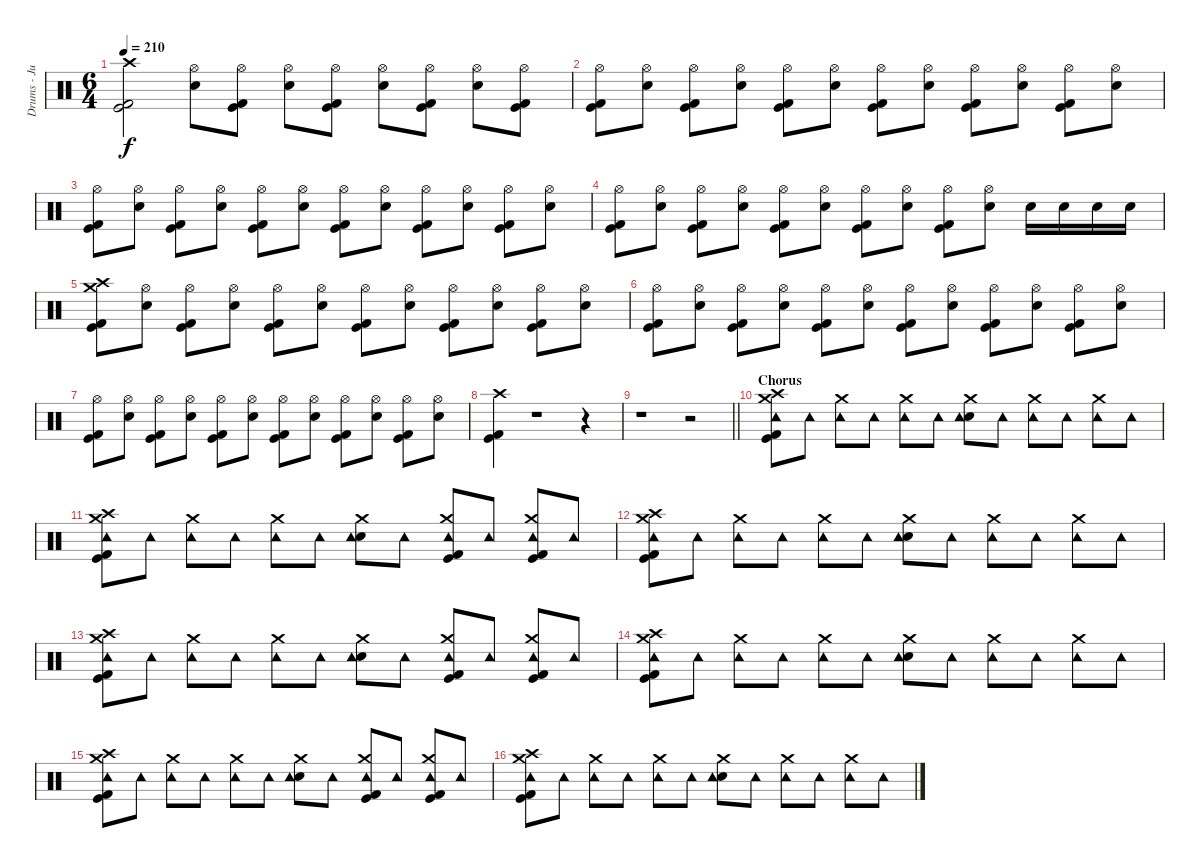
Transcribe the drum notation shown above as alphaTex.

\track ("Drums - Justin Foley" "Drums - Ju") {instrument percussion}
\staff {score}
\articulation defaults
\ts (6 4)
\tempo 210
\clef neutral
\ks c
("Crash high (hit)" "Kick (hit) 2" "Kick (hit)").2{dy f} ("Hi-Hat (open)" "Snare (hit) 2").8 ("Hi-Hat (open)" "Kick (hit) 2" "Kick (hit)").8 ("Hi-Hat (open)" "Snare (hit) 2").8 ("Hi-Hat (open)" "Kick (hit) 2" "Kick (hit)").8 ("Hi-Hat (open)" "Snare (hit) 2").8 ("Hi-Hat (open)" "Kick (hit) 2" "Kick (hit)").8 ("Hi-Hat (open)" "Snare (hit) 2").8 ("Hi-Hat (open)" "Kick (hit) 2" "Kick (hit)").8 |
("Hi-Hat (open)" "Kick (hit) 2" "Kick (hit)").8 ("Hi-Hat (open)" "Snare (hit) 2").8 ("Hi-Hat (open)" "Kick (hit) 2" "Kick (hit)").8 ("Hi-Hat (open)" "Snare (hit) 2").8 ("Hi-Hat (open)" "Kick (hit) 2" "Kick (hit)").8 ("Hi-Hat (open)" "Snare (hit) 2").8 ("Hi-Hat (open)" "Kick (hit) 2" "Kick (hit)").8 ("Hi-Hat (open)" "Snare (hit) 2").8 ("Hi-Hat (open)" "Kick (hit) 2" "Kick (hit)").8 ("Hi-Hat (open)" "Snare (hit) 2").8 ("Hi-Hat (open)" "Kick (hit) 2" "Kick (hit)").8 ("Hi-Hat (open)" "Snare (hit) 2").8 |
("Hi-Hat (open)" "Kick (hit) 2" "Kick (hit)").8 ("Hi-Hat (open)" "Snare (hit) 2").8 ("Hi-Hat (open)" "Kick (hit) 2" "Kick (hit)").8 ("Hi-Hat (open)" "Snare (hit) 2").8 ("Hi-Hat (open)" "Kick (hit) 2" "Kick (hit)").8 ("Hi-Hat (open)" "Snare (hit) 2").8 ("Hi-Hat (open)" "Kick (hit) 2" "Kick (hit)").8 ("Hi-Hat (open)" "Snare (hit) 2").8 ("Hi-Hat (open)" "Kick (hit) 2" "Kick (hit)").8 ("Hi-Hat (open)" "Snare (hit) 2").8 ("Hi-Hat (open)" "Kick (hit) 2" "Kick (hit)").8 ("Hi-Hat (open)" "Snare (hit) 2").8 |
("Hi-Hat (open)" "Kick (hit) 2" "Kick (hit)").8 ("Hi-Hat (open)" "Snare (hit) 2").8 ("Hi-Hat (open)" "Kick (hit) 2" "Kick (hit)").8 ("Hi-Hat (open)" "Snare (hit) 2").8 ("Hi-Hat (open)" "Kick (hit) 2" "Kick (hit)").8 ("Hi-Hat (open)" "Snare (hit) 2").8 ("Hi-Hat (open)" "Kick (hit) 2" "Kick (hit)").8 ("Hi-Hat (open)" "Snare (hit) 2").8 ("Hi-Hat (open)" "Kick (hit) 2" "Kick (hit)").8 ("Hi-Hat (open)" "Snare (hit) 2").8 "Snare (hit) 2".16 "Snare (hit) 2".16 "Snare (hit) 2".16 "Snare (hit) 2".16 |
("Crash high (hit)" "Kick (hit) 2" "Kick (hit)" "Crash medium (hit)").8 ("Hi-Hat (open)" "Snare (hit) 2").8 ("Hi-Hat (open)" "Kick (hit) 2" "Kick (hit)").8 ("Hi-Hat (open)" "Snare (hit) 2").8 ("Hi-Hat (open)" "Kick (hit) 2" "Kick (hit)").8 ("Hi-Hat (open)" "Snare (hit) 2").8 ("Hi-Hat (open)" "Kick (hit) 2" "Kick (hit)").8 ("Hi-Hat (open)" "Snare (hit) 2").8 ("Hi-Hat (open)" "Kick (hit) 2" "Kick (hit)").8 ("Hi-Hat (open)" "Snare (hit) 2").8 ("Hi-Hat (open)" "Kick (hit) 2" "Kick (hit)").8 ("Hi-Hat (open)" "Snare (hit) 2").8 |
("Hi-Hat (open)" "Kick (hit) 2" "Kick (hit)").8 ("Hi-Hat (open)" "Snare (hit) 2").8 ("Hi-Hat (open)" "Kick (hit) 2" "Kick (hit)").8 ("Hi-Hat (open)" "Snare (hit) 2").8 ("Hi-Hat (open)" "Kick (hit) 2" "Kick (hit)").8 ("Hi-Hat (open)" "Snare (hit) 2").8 ("Hi-Hat (open)" "Kick (hit) 2" "Kick (hit)").8 ("Hi-Hat (open)" "Snare (hit) 2").8 ("Hi-Hat (open)" "Kick (hit) 2" "Kick (hit)").8 ("Hi-Hat (open)" "Snare (hit) 2").8 ("Hi-Hat (open)" "Kick (hit) 2" "Kick (hit)").8 ("Hi-Hat (open)" "Snare (hit) 2").8 |
("Hi-Hat (open)" "Kick (hit) 2" "Kick (hit)").8 ("Hi-Hat (open)" "Snare (hit) 2").8 ("Hi-Hat (open)" "Kick (hit) 2" "Kick (hit)").8 ("Hi-Hat (open)" "Snare (hit) 2").8 ("Hi-Hat (open)" "Kick (hit) 2" "Kick (hit)").8 ("Hi-Hat (open)" "Snare (hit) 2").8 ("Hi-Hat (open)" "Kick (hit) 2" "Kick (hit)").8 ("Hi-Hat (open)" "Snare (hit) 2").8 ("Hi-Hat (open)" "Kick (hit) 2" "Kick (hit)").8 ("Hi-Hat (open)" "Snare (hit) 2").8 ("Hi-Hat (open)" "Kick (hit) 2" "Kick (hit)").8 ("Hi-Hat (open)" "Snare (hit) 2").8 |
("Crash high (hit)" "Kick (hit) 2" "Kick (hit)").4 r.1{volume 0} r.4 |
\barLineRight lightlight
r.1 r.2 |
\section ("" "Chorus")
("Crash medium (hit)" "Kick (hit) 2" "Kick (hit)" "Crash high (hit)" "Tambourine (hit)").8{volume 13} "Tambourine (hit)".8 ("Crash medium (hit)" "Tambourine (hit)").8 "Tambourine (hit)".8 ("Crash medium (hit)" "Tambourine (hit)").8 "Tambourine (hit)".8 ("Crash medium (hit)" "Snare (hit) 2" "Tambourine (hit)").8 "Tambourine (hit)".8 ("Crash medium (hit)" "Tambourine (hit)").8 "Tambourine (hit)".8 ("Crash medium (hit)" "Tambourine (hit)").8 "Tambourine (hit)".8 |
("Crash medium (hit)" "Kick (hit) 2" "Kick (hit)" "Crash high (hit)" "Tambourine (hit)").8{volume 13} "Tambourine (hit)".8 ("Crash medium (hit)" "Tambourine (hit)").8 "Tambourine (hit)".8 ("Crash medium (hit)" "Tambourine (hit)").8 "Tambourine (hit)".8 ("Crash medium (hit)" "Snare (hit) 2" "Tambourine (hit)").8 "Tambourine (hit)".8 ("Crash medium (hit)" "Kick (hit) 2" "Kick (hit)" "Tambourine (hit)").8 "Tambourine (hit)".8 ("Crash medium (hit)" "Kick (hit) 2" "Kick (hit)" "Tambourine (hit)").8 "Tambourine (hit)".8 |
("Crash medium (hit)" "Kick (hit) 2" "Kick (hit)" "Crash high (hit)" "Tambourine (hit)").8{volume 13} "Tambourine (hit)".8 ("Crash medium (hit)" "Tambourine (hit)").8 "Tambourine (hit)".8 ("Crash medium (hit)" "Tambourine (hit)").8 "Tambourine (hit)".8 ("Crash medium (hit)" "Snare (hit) 2" "Tambourine (hit)").8 "Tambourine (hit)".8 ("Crash medium (hit)" "Tambourine (hit)").8 "Tambourine (hit)".8 ("Crash medium (hit)" "Tambourine (hit)").8 "Tambourine (hit)".8 |
("Crash medium (hit)" "Kick (hit) 2" "Kick (hit)" "Crash high (hit)" "Tambourine (hit)").8{volume 13} "Tambourine (hit)".8 ("Crash medium (hit)" "Tambourine (hit)").8 "Tambourine (hit)".8 ("Crash medium (hit)" "Tambourine (hit)").8 "Tambourine (hit)".8 ("Crash medium (hit)" "Snare (hit) 2" "Tambourine (hit)").8 "Tambourine (hit)".8 ("Crash medium (hit)" "Kick (hit) 2" "Kick (hit)" "Tambourine (hit)").8 "Tambourine (hit)".8 ("Crash medium (hit)" "Kick (hit) 2" "Kick (hit)" "Tambourine (hit)").8 "Tambourine (hit)".8 |
("Crash medium (hit)" "Kick (hit) 2" "Kick (hit)" "Crash high (hit)" "Tambourine (hit)").8{volume 13} "Tambourine (hit)".8 ("Crash medium (hit)" "Tambourine (hit)").8 "Tambourine (hit)".8 ("Crash medium (hit)" "Tambourine (hit)").8 "Tambourine (hit)".8 ("Crash medium (hit)" "Snare (hit) 2" "Tambourine (hit)").8 "Tambourine (hit)".8 ("Crash medium (hit)" "Tambourine (hit)").8 "Tambourine (hit)".8 ("Crash medium (hit)" "Tambourine (hit)").8 "Tambourine (hit)".8 |
("Crash medium (hit)" "Kick (hit) 2" "Kick (hit)" "Crash high (hit)" "Tambourine (hit)").8{volume 13} "Tambourine (hit)".8 ("Crash medium (hit)" "Tambourine (hit)").8 "Tambourine (hit)".8 ("Crash medium (hit)" "Tambourine (hit)").8 "Tambourine (hit)".8 ("Crash medium (hit)" "Snare (hit) 2" "Tambourine (hit)").8 "Tambourine (hit)".8 ("Crash medium (hit)" "Kick (hit) 2" "Kick (hit)" "Tambourine (hit)").8 "Tambourine (hit)".8 ("Crash medium (hit)" "Kick (hit) 2" "Kick (hit)" "Tambourine (hit)").8 "Tambourine (hit)".8 |
("Crash medium (hit)" "Kick (hit) 2" "Kick (hit)" "Crash high (hit)" "Tambourine (hit)").8{volume 13} "Tambourine (hit)".8 ("Crash medium (hit)" "Tambourine (hit)").8 "Tambourine (hit)".8 ("Crash medium (hit)" "Tambourine (hit)").8 "Tambourine (hit)".8 ("Crash medium (hit)" "Snare (hit) 2" "Tambourine (hit)").8 "Tambourine (hit)".8 ("Crash medium (hit)" "Tambourine (hit)").8 "Tambourine (hit)".8 ("Crash medium (hit)" "Tambourine (hit)").8 "Tambourine (hit)".8
